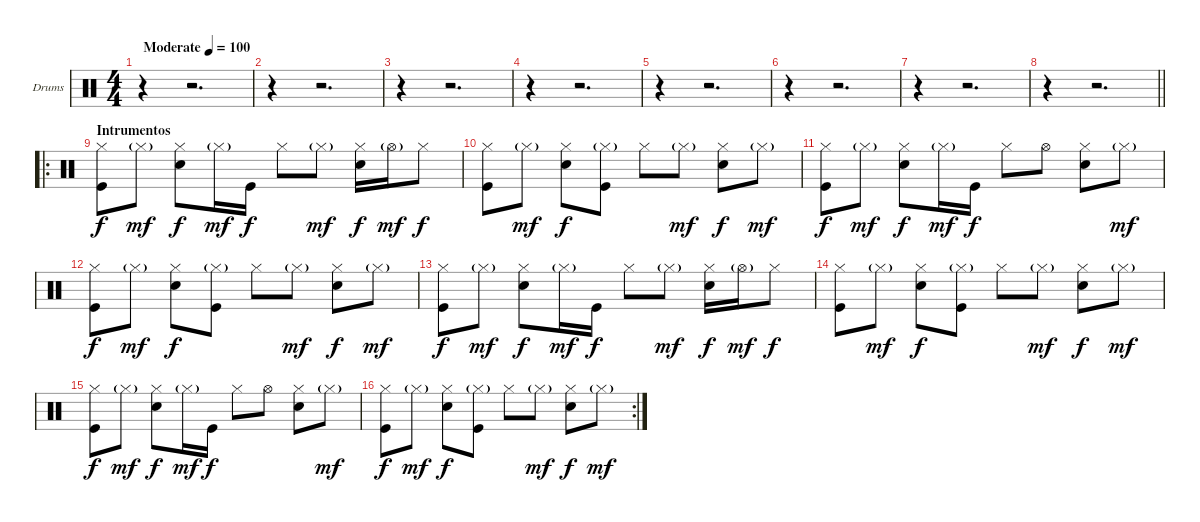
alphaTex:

\bracketExtendMode groupsimilarinstruments
\firstSystemTrackNameOrientation horizontal
\otherSystemsTrackNameOrientation horizontal
\track ("Drumkit" "Drums") {instrument percussion}
\staff {score}
\articulation defaults
\ts (4 4)
\beaming (8 2 2 2 2)
\tempo (100 "Moderate")
\clef neutral
\ks c
r.4{dy f} r.2{d} |
r.4 r.2{d} |
r.4 r.2{d} |
r.4 r.2{d} |
r.4 r.2{d} |
r.4 r.2{d} |
r.4 r.2{d} |
\barLineRight lightlight
r.4 r.2{d} |
\ro
\section ("" "Intrumentos")
("Hi-Hat (closed)" "Kick (hit)").8 "Hi-Hat (closed)"{g}.8{dy mf} ("Hi-Hat (closed)" "Snare (hit) 2").8{dy f} "Hi-Hat (closed)"{g}.16{dy mf} "Kick (hit)".16{dy f} "Hi-Hat (closed)".8 "Hi-Hat (closed)"{g}.8{dy mf} ("Hi-Hat (closed)" "Snare (hit) 2").16{dy f} "Hi-Hat (open)"{g}.16{dy mf} "Hi-Hat (closed)".8{dy f} |
("Hi-Hat (closed)" "Kick (hit)").8 "Hi-Hat (closed)"{g}.8{dy mf} ("Hi-Hat (closed)" "Snare (hit) 2").8{dy f} ("Hi-Hat (closed)"{g} "Kick (hit)").8 "Hi-Hat (closed)".8 "Hi-Hat (closed)"{g}.8{dy mf} ("Hi-Hat (closed)" "Snare (hit) 2").8{dy f} "Hi-Hat (closed)"{g}.8{dy mf} |
("Hi-Hat (closed)" "Kick (hit)").8{dy f} "Hi-Hat (closed)"{g}.8{dy mf} ("Hi-Hat (closed)" "Snare (hit) 2").8{dy f} "Hi-Hat (closed)"{g}.16{dy mf} "Kick (hit)".16{dy f} "Hi-Hat (closed)".8 "Hi-Hat (open)".8 ("Hi-Hat (closed)" "Snare (hit) 2").8 "Hi-Hat (closed)"{g}.8{dy mf} |
("Hi-Hat (closed)" "Kick (hit)").8{dy f} "Hi-Hat (closed)"{g}.8{dy mf} ("Hi-Hat (closed)" "Snare (hit) 2").8{dy f} ("Hi-Hat (closed)"{g} "Kick (hit)").8 "Hi-Hat (closed)".8 "Hi-Hat (closed)"{g}.8{dy mf} ("Hi-Hat (closed)" "Snare (hit) 2").8{dy f} "Hi-Hat (closed)"{g}.8{dy mf} |
("Hi-Hat (closed)" "Kick (hit)").8{dy f} "Hi-Hat (closed)"{g}.8{dy mf} ("Hi-Hat (closed)" "Snare (hit) 2").8{dy f} "Hi-Hat (closed)"{g}.16{dy mf} "Kick (hit)".16{dy f} "Hi-Hat (closed)".8 "Hi-Hat (closed)"{g}.8{dy mf} ("Hi-Hat (closed)" "Snare (hit) 2").16{dy f} "Hi-Hat (open)"{g}.16{dy mf} "Hi-Hat (closed)".8{dy f} |
("Hi-Hat (closed)" "Kick (hit)").8 "Hi-Hat (closed)"{g}.8{dy mf} ("Hi-Hat (closed)" "Snare (hit) 2").8{dy f} ("Hi-Hat (closed)"{g} "Kick (hit)").8 "Hi-Hat (closed)".8 "Hi-Hat (closed)"{g}.8{dy mf} ("Hi-Hat (closed)" "Snare (hit) 2").8{dy f} "Hi-Hat (closed)"{g}.8{dy mf} |
("Hi-Hat (closed)" "Kick (hit)").8{dy f} "Hi-Hat (closed)"{g}.8{dy mf} ("Hi-Hat (closed)" "Snare (hit) 2").8{dy f} "Hi-Hat (closed)"{g}.16{dy mf} "Kick (hit)".16{dy f} "Hi-Hat (closed)".8 "Hi-Hat (open)".8 ("Hi-Hat (closed)" "Snare (hit) 2").8 "Hi-Hat (closed)"{g}.8{dy mf} |
\rc 2
("Hi-Hat (closed)" "Kick (hit)").8{dy f} "Hi-Hat (closed)"{g}.8{dy mf} ("Hi-Hat (closed)" "Snare (hit) 2").8{dy f} ("Hi-Hat (closed)"{g} "Kick (hit)").8 "Hi-Hat (closed)".8 "Hi-Hat (closed)"{g}.8{dy mf} ("Hi-Hat (closed)" "Snare (hit) 2").8{dy f} "Hi-Hat (closed)"{g}.8{dy mf}
